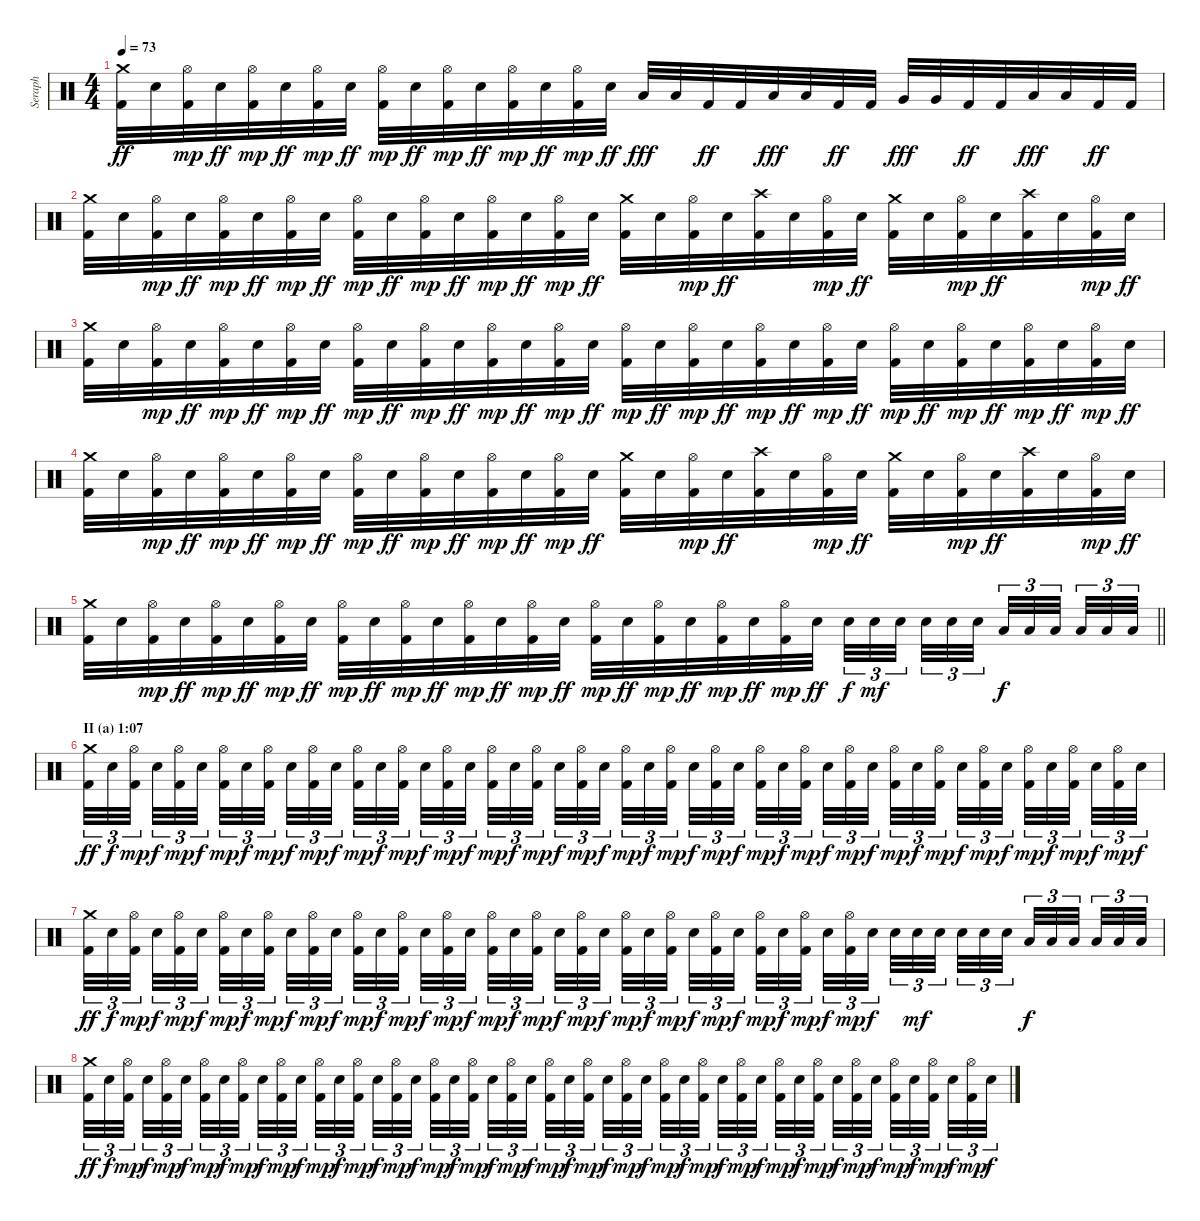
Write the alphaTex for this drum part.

\track ("Seraph" "Seraph") {instrument percussion}
\staff {score}
\articulation defaults
\ts (4 4)
\tempo 73
\clef neutral
\ks c
("Kick (hit) 2" "Crash medium (hit)").32{dy ff} "Electric Snare (hit)".32 ("Kick (hit) 2" "Hi-Hat (open)").32{dy mp} "Electric Snare (hit)".32{dy ff} ("Kick (hit) 2" "Hi-Hat (open)").32{dy mp} "Electric Snare (hit)".32{dy ff} ("Kick (hit) 2" "Hi-Hat (open)").32{dy mp} "Electric Snare (hit)".32{dy ff} ("Kick (hit) 2" "Hi-Hat (open)").32{dy mp} "Electric Snare (hit)".32{dy ff} ("Kick (hit) 2" "Hi-Hat (open)").32{dy mp} "Electric Snare (hit)".32{dy ff} ("Kick (hit) 2" "Hi-Hat (open)").32{dy mp} "Electric Snare (hit)".32{dy ff} ("Kick (hit) 2" "Hi-Hat (open)").32{dy mp} "Electric Snare (hit)".32{dy ff} "Low Tom (hit)".32{dy fff} "Low Tom (hit)".32 "Kick (hit) 2".32{dy ff} "Kick (hit) 2".32 "Low Floor Tom (hit)".32{dy fff} "Low Floor Tom (hit)".32 "Kick (hit) 2".32{dy ff} "Kick (hit) 2".32 "Very Low Tom (hit)".32{dy fff} "Very Low Tom (hit)".32 "Kick (hit) 2".32{dy ff} "Kick (hit) 2".32 "Low Tom (hit)".32{dy fff} "Low Tom (hit)".32 "Kick (hit) 2".32{dy ff} "Kick (hit) 2".32 |
("Kick (hit) 2" "Crash medium (hit)").32 "Electric Snare (hit)".32 ("Kick (hit) 2" "Hi-Hat (open)").32{dy mp} "Electric Snare (hit)".32{dy ff} ("Kick (hit) 2" "Hi-Hat (open)").32{dy mp} "Electric Snare (hit)".32{dy ff} ("Kick (hit) 2" "Hi-Hat (open)").32{dy mp} "Electric Snare (hit)".32{dy ff} ("Kick (hit) 2" "Hi-Hat (open)").32{dy mp} "Electric Snare (hit)".32{dy ff} ("Kick (hit) 2" "Hi-Hat (open)").32{dy mp} "Electric Snare (hit)".32{dy ff} ("Kick (hit) 2" "Hi-Hat (open)").32{dy mp} "Electric Snare (hit)".32{dy ff} ("Kick (hit) 2" "Hi-Hat (open)").32{dy mp} "Electric Snare (hit)".32{dy ff} ("Kick (hit) 2" "Crash medium (hit)").32 "Electric Snare (hit)".32 ("Kick (hit) 2" "Hi-Hat (open)").32{dy mp} "Electric Snare (hit)".32{dy ff} ("Kick (hit) 2" "Crash high (hit)").32 "Electric Snare (hit)".32 ("Kick (hit) 2" "Hi-Hat (open)").32{dy mp} "Electric Snare (hit)".32{dy ff} ("Kick (hit) 2" "Crash medium (hit)").32 "Electric Snare (hit)".32 ("Kick (hit) 2" "Hi-Hat (open)").32{dy mp} "Electric Snare (hit)".32{dy ff} ("Kick (hit) 2" "Crash high (hit)").32 "Electric Snare (hit)".32 ("Kick (hit) 2" "Hi-Hat (open)").32{dy mp} "Electric Snare (hit)".32{dy ff} |
("Kick (hit) 2" "Crash medium (hit)").32 "Electric Snare (hit)".32 ("Kick (hit) 2" "Hi-Hat (open)").32{dy mp} "Electric Snare (hit)".32{dy ff} ("Kick (hit) 2" "Hi-Hat (open)").32{dy mp} "Electric Snare (hit)".32{dy ff} ("Kick (hit) 2" "Hi-Hat (open)").32{dy mp} "Electric Snare (hit)".32{dy ff} ("Kick (hit) 2" "Hi-Hat (open)").32{dy mp} "Electric Snare (hit)".32{dy ff} ("Kick (hit) 2" "Hi-Hat (open)").32{dy mp} "Electric Snare (hit)".32{dy ff} ("Kick (hit) 2" "Hi-Hat (open)").32{dy mp} "Electric Snare (hit)".32{dy ff} ("Kick (hit) 2" "Hi-Hat (open)").32{dy mp} "Electric Snare (hit)".32{dy ff} ("Kick (hit) 2" "Hi-Hat (open)").32{dy mp} "Electric Snare (hit)".32{dy ff} ("Kick (hit) 2" "Hi-Hat (open)").32{dy mp} "Electric Snare (hit)".32{dy ff} ("Kick (hit) 2" "Hi-Hat (open)").32{dy mp} "Electric Snare (hit)".32{dy ff} ("Kick (hit) 2" "Hi-Hat (open)").32{dy mp} "Electric Snare (hit)".32{dy ff} ("Kick (hit) 2" "Hi-Hat (open)").32{dy mp} "Electric Snare (hit)".32{dy ff} ("Kick (hit) 2" "Hi-Hat (open)").32{dy mp} "Electric Snare (hit)".32{dy ff} ("Kick (hit) 2" "Hi-Hat (open)").32{dy mp} "Electric Snare (hit)".32{dy ff} ("Kick (hit) 2" "Hi-Hat (open)").32{dy mp} "Electric Snare (hit)".32{dy ff} |
("Kick (hit) 2" "Crash medium (hit)").32 "Electric Snare (hit)".32 ("Kick (hit) 2" "Hi-Hat (open)").32{dy mp} "Electric Snare (hit)".32{dy ff} ("Kick (hit) 2" "Hi-Hat (open)").32{dy mp} "Electric Snare (hit)".32{dy ff} ("Kick (hit) 2" "Hi-Hat (open)").32{dy mp} "Electric Snare (hit)".32{dy ff} ("Kick (hit) 2" "Hi-Hat (open)").32{dy mp} "Electric Snare (hit)".32{dy ff} ("Kick (hit) 2" "Hi-Hat (open)").32{dy mp} "Electric Snare (hit)".32{dy ff} ("Kick (hit) 2" "Hi-Hat (open)").32{dy mp} "Electric Snare (hit)".32{dy ff} ("Kick (hit) 2" "Hi-Hat (open)").32{dy mp} "Electric Snare (hit)".32{dy ff} ("Kick (hit) 2" "Crash medium (hit)").32 "Electric Snare (hit)".32 ("Kick (hit) 2" "Hi-Hat (open)").32{dy mp} "Electric Snare (hit)".32{dy ff} ("Kick (hit) 2" "Crash high (hit)").32 "Electric Snare (hit)".32 ("Kick (hit) 2" "Hi-Hat (open)").32{dy mp} "Electric Snare (hit)".32{dy ff} ("Kick (hit) 2" "Crash medium (hit)").32 "Electric Snare (hit)".32 ("Kick (hit) 2" "Hi-Hat (open)").32{dy mp} "Electric Snare (hit)".32{dy ff} ("Kick (hit) 2" "Crash high (hit)").32 "Electric Snare (hit)".32 ("Kick (hit) 2" "Hi-Hat (open)").32{dy mp} "Electric Snare (hit)".32{dy ff} |
\barLineRight lightlight
("Kick (hit) 2" "Crash medium (hit)").32 "Electric Snare (hit)".32 ("Kick (hit) 2" "Hi-Hat (open)").32{dy mp} "Electric Snare (hit)".32{dy ff} ("Kick (hit) 2" "Hi-Hat (open)").32{dy mp} "Electric Snare (hit)".32{dy ff} ("Kick (hit) 2" "Hi-Hat (open)").32{dy mp} "Electric Snare (hit)".32{dy ff} ("Kick (hit) 2" "Hi-Hat (open)").32{dy mp} "Electric Snare (hit)".32{dy ff} ("Kick (hit) 2" "Hi-Hat (open)").32{dy mp} "Electric Snare (hit)".32{dy ff} ("Kick (hit) 2" "Hi-Hat (open)").32{dy mp} "Electric Snare (hit)".32{dy ff} ("Kick (hit) 2" "Hi-Hat (open)").32{dy mp} "Electric Snare (hit)".32{dy ff} ("Kick (hit) 2" "Hi-Hat (open)").32{dy mp} "Electric Snare (hit)".32{dy ff} ("Kick (hit) 2" "Hi-Hat (open)").32{dy mp} "Electric Snare (hit)".32{dy ff} ("Kick (hit) 2" "Hi-Hat (open)").32{dy mp} "Electric Snare (hit)".32{dy ff} ("Kick (hit) 2" "Hi-Hat (open)").32{dy mp} "Electric Snare (hit)".32{dy ff} "Electric Snare (hit)".32{tu (3 2) dy f} "Electric Snare (hit)".32{tu (3 2) dy mf} "Electric Snare (hit)".32{tu (3 2) beam splitsecondary} "Electric Snare (hit)".32{tu (3 2)} "Electric Snare (hit)".32{tu (3 2)} "Electric Snare (hit)".32{tu (3 2) beam splitsecondary} "Low Tom (hit)".32{tu (3 2) dy f} "Low Tom (hit)".32{tu (3 2)} "Low Tom (hit)".32{tu (3 2) beam splitsecondary} "Low Tom (hit)".32{tu (3 2)} "Low Tom (hit)".32{tu (3 2)} "Low Tom (hit)".32{tu (3 2)} |
\section ("" "II (a) 1:07")
("Kick (hit) 2" "Crash medium (hit)").32{tu (3 2) dy ff} "Electric Snare (hit)".32{tu (3 2) dy f} ("Kick (hit) 2" "Hi-Hat (open)").32{tu (3 2) dy mp beam splitsecondary} "Electric Snare (hit)".32{tu (3 2) dy f} ("Kick (hit) 2" "Hi-Hat (open)").32{tu (3 2) dy mp} "Electric Snare (hit)".32{tu (3 2) dy f beam splitsecondary} ("Kick (hit) 2" "Hi-Hat (open)").32{tu (3 2) dy mp} "Electric Snare (hit)".32{tu (3 2) dy f} ("Kick (hit) 2" "Hi-Hat (open)").32{tu (3 2) dy mp beam splitsecondary} "Electric Snare (hit)".32{tu (3 2) dy f} ("Kick (hit) 2" "Hi-Hat (open)").32{tu (3 2) dy mp} "Electric Snare (hit)".32{tu (3 2) dy f} ("Kick (hit) 2" "Hi-Hat (open)").32{tu (3 2) dy mp} "Electric Snare (hit)".32{tu (3 2) dy f} ("Kick (hit) 2" "Hi-Hat (open)").32{tu (3 2) dy mp beam splitsecondary} "Electric Snare (hit)".32{tu (3 2) dy f} ("Kick (hit) 2" "Hi-Hat (open)").32{tu (3 2) dy mp} "Electric Snare (hit)".32{tu (3 2) dy f beam splitsecondary} ("Kick (hit) 2" "Hi-Hat (open)").32{tu (3 2) dy mp} "Electric Snare (hit)".32{tu (3 2) dy f} ("Kick (hit) 2" "Hi-Hat (open)").32{tu (3 2) dy mp beam splitsecondary} "Electric Snare (hit)".32{tu (3 2) dy f} ("Kick (hit) 2" "Hi-Hat (open)").32{tu (3 2) dy mp} "Electric Snare (hit)".32{tu (3 2) dy f} ("Kick (hit) 2" "Hi-Hat (open)").32{tu (3 2) dy mp} "Electric Snare (hit)".32{tu (3 2) dy f} ("Kick (hit) 2" "Hi-Hat (open)").32{tu (3 2) dy mp beam splitsecondary} "Electric Snare (hit)".32{tu (3 2) dy f} ("Kick (hit) 2" "Hi-Hat (open)").32{tu (3 2) dy mp} "Electric Snare (hit)".32{tu (3 2) dy f beam splitsecondary} ("Kick (hit) 2" "Hi-Hat (open)").32{tu (3 2) dy mp} "Electric Snare (hit)".32{tu (3 2) dy f} ("Kick (hit) 2" "Hi-Hat (open)").32{tu (3 2) dy mp beam splitsecondary} "Electric Snare (hit)".32{tu (3 2) dy f} ("Kick (hit) 2" "Hi-Hat (open)").32{tu (3 2) dy mp} "Electric Snare (hit)".32{tu (3 2) dy f} ("Kick (hit) 2" "Hi-Hat (open)").32{tu (3 2) dy mp} "Electric Snare (hit)".32{tu (3 2) dy f} ("Kick (hit) 2" "Hi-Hat (open)").32{tu (3 2) dy mp beam splitsecondary} "Electric Snare (hit)".32{tu (3 2) dy f} ("Kick (hit) 2" "Hi-Hat (open)").32{tu (3 2) dy mp} "Electric Snare (hit)".32{tu (3 2) dy f beam splitsecondary} ("Kick (hit) 2" "Hi-Hat (open)").32{tu (3 2) dy mp} "Electric Snare (hit)".32{tu (3 2) dy f} ("Kick (hit) 2" "Hi-Hat (open)").32{tu (3 2) dy mp beam splitsecondary} "Electric Snare (hit)".32{tu (3 2) dy f} ("Kick (hit) 2" "Hi-Hat (open)").32{tu (3 2) dy mp} "Electric Snare (hit)".32{tu (3 2) dy f} |
("Kick (hit) 2" "Crash medium (hit)").32{tu (3 2) dy ff} "Electric Snare (hit)".32{tu (3 2) dy f} ("Kick (hit) 2" "Hi-Hat (open)").32{tu (3 2) dy mp beam splitsecondary} "Electric Snare (hit)".32{tu (3 2) dy f} ("Kick (hit) 2" "Hi-Hat (open)").32{tu (3 2) dy mp} "Electric Snare (hit)".32{tu (3 2) dy f beam splitsecondary} ("Kick (hit) 2" "Hi-Hat (open)").32{tu (3 2) dy mp} "Electric Snare (hit)".32{tu (3 2) dy f} ("Kick (hit) 2" "Hi-Hat (open)").32{tu (3 2) dy mp beam splitsecondary} "Electric Snare (hit)".32{tu (3 2) dy f} ("Kick (hit) 2" "Hi-Hat (open)").32{tu (3 2) dy mp} "Electric Snare (hit)".32{tu (3 2) dy f} ("Kick (hit) 2" "Hi-Hat (open)").32{tu (3 2) dy mp} "Electric Snare (hit)".32{tu (3 2) dy f} ("Kick (hit) 2" "Hi-Hat (open)").32{tu (3 2) dy mp beam splitsecondary} "Electric Snare (hit)".32{tu (3 2) dy f} ("Kick (hit) 2" "Hi-Hat (open)").32{tu (3 2) dy mp} "Electric Snare (hit)".32{tu (3 2) dy f beam splitsecondary} ("Kick (hit) 2" "Hi-Hat (open)").32{tu (3 2) dy mp} "Electric Snare (hit)".32{tu (3 2) dy f} ("Kick (hit) 2" "Hi-Hat (open)").32{tu (3 2) dy mp beam splitsecondary} "Electric Snare (hit)".32{tu (3 2) dy f} ("Kick (hit) 2" "Hi-Hat (open)").32{tu (3 2) dy mp} "Electric Snare (hit)".32{tu (3 2) dy f} ("Kick (hit) 2" "Hi-Hat (open)").32{tu (3 2) dy mp} "Electric Snare (hit)".32{tu (3 2) dy f} ("Kick (hit) 2" "Hi-Hat (open)").32{tu (3 2) dy mp beam splitsecondary} "Electric Snare (hit)".32{tu (3 2) dy f} ("Kick (hit) 2" "Hi-Hat (open)").32{tu (3 2) dy mp} "Electric Snare (hit)".32{tu (3 2) dy f beam splitsecondary} ("Kick (hit) 2" "Hi-Hat (open)").32{tu (3 2) dy mp} "Electric Snare (hit)".32{tu (3 2) dy f} ("Kick (hit) 2" "Hi-Hat (open)").32{tu (3 2) dy mp beam splitsecondary} "Electric Snare (hit)".32{tu (3 2) dy f} ("Kick (hit) 2" "Hi-Hat (open)").32{tu (3 2) dy mp} "Electric Snare (hit)".32{tu (3 2) dy f} "Electric Snare (hit)".32{tu (3 2)} "Electric Snare (hit)".32{tu (3 2) dy mf} "Electric Snare (hit)".32{tu (3 2) beam splitsecondary} "Electric Snare (hit)".32{tu (3 2)} "Electric Snare (hit)".32{tu (3 2)} "Electric Snare (hit)".32{tu (3 2) beam splitsecondary} "Low Tom (hit)".32{tu (3 2) dy f} "Low Tom (hit)".32{tu (3 2)} "Low Tom (hit)".32{tu (3 2) beam splitsecondary} "Low Tom (hit)".32{tu (3 2)} "Low Tom (hit)".32{tu (3 2)} "Low Tom (hit)".32{tu (3 2)} |
("Kick (hit) 2" "Crash medium (hit)").32{tu (3 2) dy ff} "Electric Snare (hit)".32{tu (3 2) dy f} ("Kick (hit) 2" "Hi-Hat (open)").32{tu (3 2) dy mp beam splitsecondary} "Electric Snare (hit)".32{tu (3 2) dy f} ("Kick (hit) 2" "Hi-Hat (open)").32{tu (3 2) dy mp} "Electric Snare (hit)".32{tu (3 2) dy f beam splitsecondary} ("Kick (hit) 2" "Hi-Hat (open)").32{tu (3 2) dy mp} "Electric Snare (hit)".32{tu (3 2) dy f} ("Kick (hit) 2" "Hi-Hat (open)").32{tu (3 2) dy mp beam splitsecondary} "Electric Snare (hit)".32{tu (3 2) dy f} ("Kick (hit) 2" "Hi-Hat (open)").32{tu (3 2) dy mp} "Electric Snare (hit)".32{tu (3 2) dy f} ("Kick (hit) 2" "Hi-Hat (open)").32{tu (3 2) dy mp} "Electric Snare (hit)".32{tu (3 2) dy f} ("Kick (hit) 2" "Hi-Hat (open)").32{tu (3 2) dy mp beam splitsecondary} "Electric Snare (hit)".32{tu (3 2) dy f} ("Kick (hit) 2" "Hi-Hat (open)").32{tu (3 2) dy mp} "Electric Snare (hit)".32{tu (3 2) dy f beam splitsecondary} ("Kick (hit) 2" "Hi-Hat (open)").32{tu (3 2) dy mp} "Electric Snare (hit)".32{tu (3 2) dy f} ("Kick (hit) 2" "Hi-Hat (open)").32{tu (3 2) dy mp beam splitsecondary} "Electric Snare (hit)".32{tu (3 2) dy f} ("Kick (hit) 2" "Hi-Hat (open)").32{tu (3 2) dy mp} "Electric Snare (hit)".32{tu (3 2) dy f} ("Kick (hit) 2" "Hi-Hat (open)").32{tu (3 2) dy mp} "Electric Snare (hit)".32{tu (3 2) dy f} ("Kick (hit) 2" "Hi-Hat (open)").32{tu (3 2) dy mp beam splitsecondary} "Electric Snare (hit)".32{tu (3 2) dy f} ("Kick (hit) 2" "Hi-Hat (open)").32{tu (3 2) dy mp} "Electric Snare (hit)".32{tu (3 2) dy f beam splitsecondary} ("Kick (hit) 2" "Hi-Hat (open)").32{tu (3 2) dy mp} "Electric Snare (hit)".32{tu (3 2) dy f} ("Kick (hit) 2" "Hi-Hat (open)").32{tu (3 2) dy mp beam splitsecondary} "Electric Snare (hit)".32{tu (3 2) dy f} ("Kick (hit) 2" "Hi-Hat (open)").32{tu (3 2) dy mp} "Electric Snare (hit)".32{tu (3 2) dy f} ("Kick (hit) 2" "Hi-Hat (open)").32{tu (3 2) dy mp} "Electric Snare (hit)".32{tu (3 2) dy f} ("Kick (hit) 2" "Hi-Hat (open)").32{tu (3 2) dy mp beam splitsecondary} "Electric Snare (hit)".32{tu (3 2) dy f} ("Kick (hit) 2" "Hi-Hat (open)").32{tu (3 2) dy mp} "Electric Snare (hit)".32{tu (3 2) dy f beam splitsecondary} ("Kick (hit) 2" "Hi-Hat (open)").32{tu (3 2) dy mp} "Electric Snare (hit)".32{tu (3 2) dy f} ("Kick (hit) 2" "Hi-Hat (open)").32{tu (3 2) dy mp beam splitsecondary} "Electric Snare (hit)".32{tu (3 2) dy f} ("Kick (hit) 2" "Hi-Hat (open)").32{tu (3 2) dy mp} "Electric Snare (hit)".32{tu (3 2) dy f}
